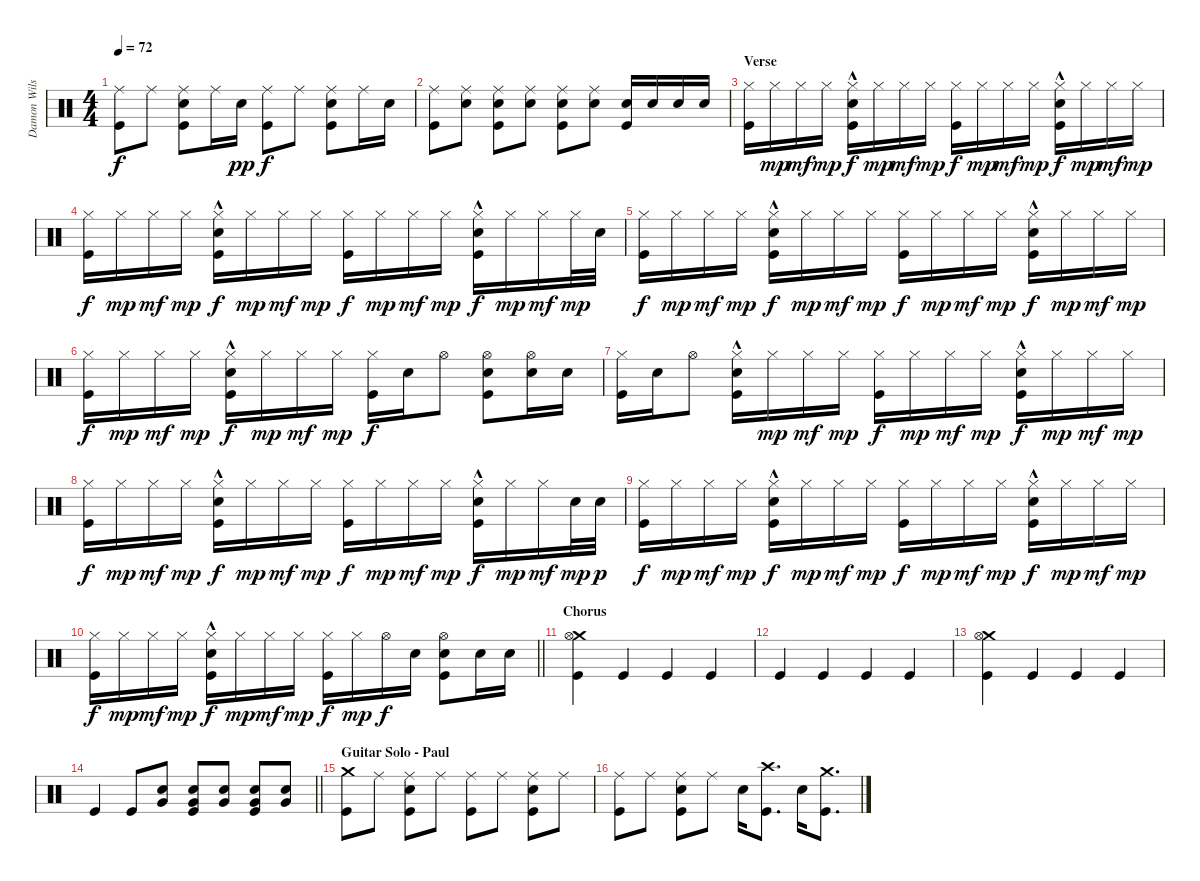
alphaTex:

\track ("Damon Wilson" "Damon Wils") {instrument percussion}
\staff {score}
\articulation defaults
\ts (4 4)
\tempo 72
\clef neutral
\ks c
("Ride (middle)" "Kick (hit)").8{dy f} "Ride (middle)".8 ("Ride (middle)" "Electric Snare (hit)" "Kick (hit)").8 "Ride (middle)".16 "Electric Snare (hit)".16{dy pp} ("Ride (middle)" "Kick (hit)").8{dy f} "Ride (middle)".8 ("Ride (middle)" "Electric Snare (hit)" "Kick (hit)").8 "Ride (middle)".16 "Electric Snare (hit)".16 |
("Ride (middle)" "Kick (hit)").8 ("Ride (middle)" "Electric Snare (hit)").8 ("Ride (middle)" "Electric Snare (hit)" "Kick (hit)").8 ("Ride (middle)" "Electric Snare (hit)").8 ("Ride (middle)" "Electric Snare (hit)" "Kick (hit)").8 ("Ride (middle)" "Electric Snare (hit)").8 ("Electric Snare (hit)" "Kick (hit)").16 "Electric Snare (hit)".16 "Electric Snare (hit)".16 "Electric Snare (hit)".16 |
\section ("" "Verse")
("Hi-Hat (closed)" "Kick (hit)").16 "Hi-Hat (closed)".16{dy mp} "Hi-Hat (closed)".16{dy mf} "Hi-Hat (closed)".16{dy mp} ("Hi-Hat (closed)"{hac} "Electric Snare (hit)" "Kick (hit)").16{dy f} "Hi-Hat (closed)".16{dy mp} "Hi-Hat (closed)".16{dy mf} "Hi-Hat (closed)".16{dy mp} ("Hi-Hat (closed)" "Kick (hit)").16{dy f} "Hi-Hat (closed)".16{dy mp} "Hi-Hat (closed)".16{dy mf} "Hi-Hat (closed)".16{dy mp} ("Hi-Hat (closed)"{hac} "Electric Snare (hit)" "Kick (hit)").16{dy f} "Hi-Hat (closed)".16{dy mp} "Hi-Hat (closed)".16{dy mf} "Hi-Hat (closed)".16{dy mp} |
("Hi-Hat (closed)" "Kick (hit)").16{dy f} "Hi-Hat (closed)".16{dy mp} "Hi-Hat (closed)".16{dy mf} "Hi-Hat (closed)".16{dy mp} ("Hi-Hat (closed)"{hac} "Electric Snare (hit)" "Kick (hit)").16{dy f} "Hi-Hat (closed)".16{dy mp} "Hi-Hat (closed)".16{dy mf} "Hi-Hat (closed)".16{dy mp} ("Hi-Hat (closed)" "Kick (hit)").16{dy f} "Hi-Hat (closed)".16{dy mp} "Hi-Hat (closed)".16{dy mf} "Hi-Hat (closed)".16{dy mp} ("Hi-Hat (closed)"{hac} "Electric Snare (hit)" "Kick (hit)").16{dy f} "Hi-Hat (closed)".16{dy mp} "Hi-Hat (closed)".16{dy mf} "Hi-Hat (closed)".32{dy mp} "Electric Snare (hit)".32 |
("Hi-Hat (closed)" "Kick (hit)").16{dy f} "Hi-Hat (closed)".16{dy mp} "Hi-Hat (closed)".16{dy mf} "Hi-Hat (closed)".16{dy mp} ("Hi-Hat (closed)"{hac} "Electric Snare (hit)" "Kick (hit)").16{dy f} "Hi-Hat (closed)".16{dy mp} "Hi-Hat (closed)".16{dy mf} "Hi-Hat (closed)".16{dy mp} ("Hi-Hat (closed)" "Kick (hit)").16{dy f} "Hi-Hat (closed)".16{dy mp} "Hi-Hat (closed)".16{dy mf} "Hi-Hat (closed)".16{dy mp} ("Hi-Hat (closed)"{hac} "Electric Snare (hit)" "Kick (hit)").16{dy f} "Hi-Hat (closed)".16{dy mp} "Hi-Hat (closed)".16{dy mf} "Hi-Hat (closed)".16{dy mp} |
("Hi-Hat (closed)" "Kick (hit)").16{dy f} "Hi-Hat (closed)".16{dy mp} "Hi-Hat (closed)".16{dy mf} "Hi-Hat (closed)".16{dy mp} ("Hi-Hat (closed)"{hac} "Electric Snare (hit)" "Kick (hit)").16{dy f} "Hi-Hat (closed)".16{dy mp} "Hi-Hat (closed)".16{dy mf} "Hi-Hat (closed)".16{dy mp} ("Hi-Hat (closed)" "Kick (hit)").16{dy f} "Electric Snare (hit)".16 "Hi-Hat (open)".8 ("Hi-Hat (open)" "Electric Snare (hit)" "Kick (hit)").8 ("Hi-Hat (open)" "Electric Snare (hit)").16 "Electric Snare (hit)".16 |
("Hi-Hat (closed)" "Kick (hit)").16 "Electric Snare (hit)".16 "Hi-Hat (open)".8 ("Hi-Hat (closed)"{hac} "Electric Snare (hit)" "Kick (hit)").16 "Hi-Hat (closed)".16{dy mp} "Hi-Hat (closed)".16{dy mf} "Hi-Hat (closed)".16{dy mp} ("Hi-Hat (closed)" "Kick (hit)").16{dy f} "Hi-Hat (closed)".16{dy mp} "Hi-Hat (closed)".16{dy mf} "Hi-Hat (closed)".16{dy mp} ("Hi-Hat (closed)"{hac} "Electric Snare (hit)" "Kick (hit)").16{dy f} "Hi-Hat (closed)".16{dy mp} "Hi-Hat (closed)".16{dy mf} "Hi-Hat (closed)".16{dy mp} |
("Hi-Hat (closed)" "Kick (hit)").16{dy f} "Hi-Hat (closed)".16{dy mp} "Hi-Hat (closed)".16{dy mf} "Hi-Hat (closed)".16{dy mp} ("Hi-Hat (closed)"{hac} "Electric Snare (hit)" "Kick (hit)").16{dy f} "Hi-Hat (closed)".16{dy mp} "Hi-Hat (closed)".16{dy mf} "Hi-Hat (closed)".16{dy mp} ("Hi-Hat (closed)" "Kick (hit)").16{dy f} "Hi-Hat (closed)".16{dy mp} "Hi-Hat (closed)".16{dy mf} "Hi-Hat (closed)".16{dy mp} ("Hi-Hat (closed)"{hac} "Electric Snare (hit)" "Kick (hit)").16{dy f} "Hi-Hat (closed)".16{dy mp} "Hi-Hat (closed)".16{dy mf} "Electric Snare (hit)".32{dy mp} "Electric Snare (hit)".32{dy p} |
("Hi-Hat (closed)" "Kick (hit)").16{dy f} "Hi-Hat (closed)".16{dy mp} "Hi-Hat (closed)".16{dy mf} "Hi-Hat (closed)".16{dy mp} ("Hi-Hat (closed)"{hac} "Electric Snare (hit)" "Kick (hit)").16{dy f} "Hi-Hat (closed)".16{dy mp} "Hi-Hat (closed)".16{dy mf} "Hi-Hat (closed)".16{dy mp} ("Hi-Hat (closed)" "Kick (hit)").16{dy f} "Hi-Hat (closed)".16{dy mp} "Hi-Hat (closed)".16{dy mf} "Hi-Hat (closed)".16{dy mp} ("Hi-Hat (closed)"{hac} "Electric Snare (hit)" "Kick (hit)").16{dy f} "Hi-Hat (closed)".16{dy mp} "Hi-Hat (closed)".16{dy mf} "Hi-Hat (closed)".16{dy mp} |
\barLineRight lightlight
("Hi-Hat (closed)" "Kick (hit)").16{dy f} "Hi-Hat (closed)".16{dy mp} "Hi-Hat (closed)".16{dy mf} "Hi-Hat (closed)".16{dy mp} ("Hi-Hat (closed)"{hac} "Electric Snare (hit)" "Kick (hit)").16{dy f} "Hi-Hat (closed)".16{dy mp} "Hi-Hat (closed)".16{dy mf} "Hi-Hat (closed)".16{dy mp} ("Hi-Hat (closed)" "Kick (hit)").16{dy f} "Hi-Hat (closed)".16{dy mp} "Hi-Hat (open)".16{dy f} "Electric Snare (hit)".16 ("Hi-Hat (open)" "Electric Snare (hit)" "Kick (hit)").8 "Electric Snare (hit)".16 "Electric Snare (hit)".16 |
\section ("" "Chorus")
("Crash medium (hit)" "Hi-Hat (open)" "Kick (hit)").4 "Kick (hit)".4 "Kick (hit)".4 "Kick (hit)".4 |
"Kick (hit)".4 "Kick (hit)".4 "Kick (hit)".4 "Kick (hit)".4 |
("Crash medium (hit)" "Hi-Hat (open)" "Kick (hit)").4 "Kick (hit)".4 "Kick (hit)".4 "Kick (hit)".4 |
\barLineRight lightlight "Kick (hit)".4 "Kick (hit)".8
("Very Low Tom (hit)" "Electric Snare (hit)").8 ("Very Low Tom (hit)" "Electric Snare (hit)" "Kick (hit)").8 ("Very Low Tom (hit)" "Electric Snare (hit)").8 ("Very Low Tom (hit)" "Electric Snare (hit)" "Kick (hit)").8 ("Very Low Tom (hit)" "Electric Snare (hit)").8 |
\section ("" "Guitar Solo - Paul")
("Crash medium (hit)" "Kick (hit)").8 "Ride (middle)".8 ("Ride (middle)" "Electric Snare (hit)" "Kick (hit)").8 "Ride (middle)".8 ("Ride (middle)" "Kick (hit)").8 "Ride (middle)".8 ("Ride (middle)" "Electric Snare (hit)" "Kick (hit)").8 "Ride (middle)".8 |
("Ride (middle)" "Kick (hit)").8 "Ride (middle)".8 ("Ride (middle)" "Electric Snare (hit)" "Kick (hit)").8 "Ride (middle)".8 "Electric Snare (hit)".16 ("Crash high (hit)" "Kick (hit)").8{d} "Electric Snare (hit)".16 ("Crash medium (hit)" "Kick (hit)").8{d}
